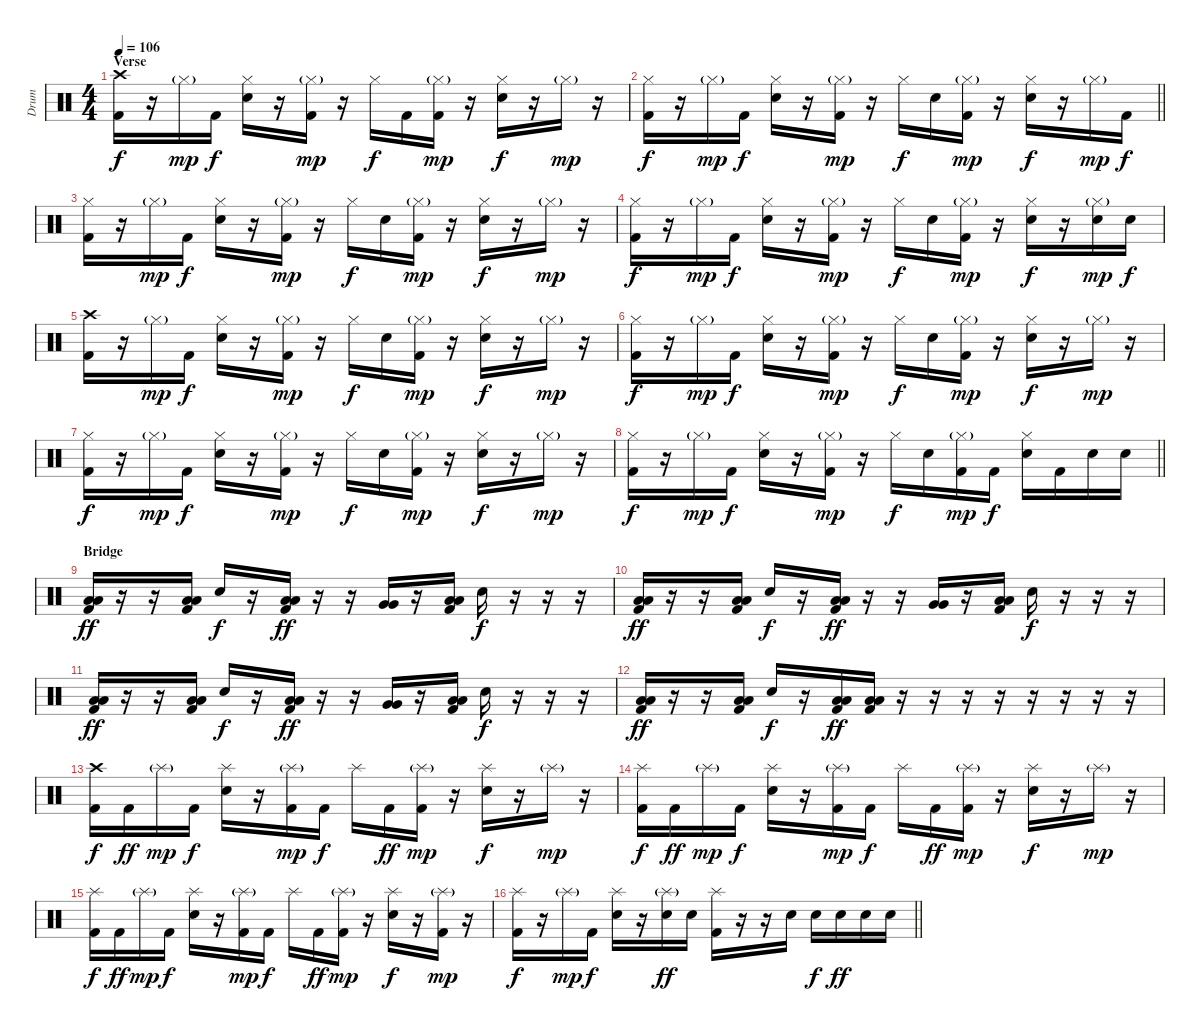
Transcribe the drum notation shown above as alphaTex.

\track ("Drum" "Drum") {instrument percussion}
\staff {score}
\articulation defaults
\ts (4 4)
\section ("" "Verse")
\tempo 106
\clef neutral
\ks c
("Crash high (hit)" "Kick (hit) 2").16{dy f} r.16 "Hi-Hat (closed)"{g}.16{dy mp} "Kick (hit) 2".16{dy f} ("Hi-Hat (closed)" "Electric Snare (hit)").16 r.16 ("Hi-Hat (closed)"{g} "Kick (hit) 2").16{dy mp} r.16 "Hi-Hat (closed)".16{dy f} "Kick (hit) 2".16 ("Hi-Hat (closed)"{g} "Kick (hit) 2").16{dy mp} r.16 ("Hi-Hat (closed)" "Electric Snare (hit)").16{dy f} r.16 "Hi-Hat (closed)"{g}.16{dy mp} r.16 |
\barLineRight lightlight
("Hi-Hat (closed)" "Kick (hit) 2").16{dy f} r.16 "Hi-Hat (closed)"{g}.16{dy mp} "Kick (hit) 2".16{dy f} ("Hi-Hat (closed)" "Electric Snare (hit)").16 r.16 ("Hi-Hat (closed)"{g} "Kick (hit) 2").16{dy mp} r.16 "Hi-Hat (closed)".16{dy f} "Electric Snare (hit)".16 ("Hi-Hat (closed)"{g} "Kick (hit) 2").16{dy mp} r.16 ("Hi-Hat (closed)" "Electric Snare (hit)").16{dy f} r.16 "Hi-Hat (closed)"{g}.16{dy mp} "Kick (hit) 2".16{dy f} |
("Hi-Hat (closed)" "Kick (hit) 2").16 r.16 "Hi-Hat (closed)"{g}.16{dy mp} "Kick (hit) 2".16{dy f} ("Hi-Hat (closed)" "Electric Snare (hit)").16 r.16 ("Hi-Hat (closed)"{g} "Kick (hit) 2").16{dy mp} r.16 "Hi-Hat (closed)".16{dy f} "Electric Snare (hit)".16 ("Hi-Hat (closed)"{g} "Kick (hit) 2").16{dy mp} r.16 ("Hi-Hat (closed)" "Electric Snare (hit)").16{dy f} r.16 "Hi-Hat (closed)"{g}.16{dy mp} r.16 |
("Hi-Hat (closed)" "Kick (hit) 2").16{dy f} r.16 "Hi-Hat (closed)"{g}.16{dy mp} "Kick (hit) 2".16{dy f} ("Hi-Hat (closed)" "Electric Snare (hit)").16 r.16 ("Hi-Hat (closed)"{g} "Kick (hit) 2").16{dy mp} r.16 "Hi-Hat (closed)".16{dy f} "Electric Snare (hit)".16 ("Hi-Hat (closed)"{g} "Kick (hit) 2").16{dy mp} r.16 ("Hi-Hat (closed)" "Electric Snare (hit)").16{dy f} r.16 ("Hi-Hat (closed)"{g} "Electric Snare (hit)").16{dy mp} "Electric Snare (hit)".16{dy f} |
("Crash high (hit)" "Kick (hit) 2").16 r.16 "Hi-Hat (closed)"{g}.16{dy mp} "Kick (hit) 2".16{dy f} ("Hi-Hat (closed)" "Electric Snare (hit)").16 r.16 ("Hi-Hat (closed)"{g} "Kick (hit) 2").16{dy mp} r.16 "Hi-Hat (closed)".16{dy f} "Electric Snare (hit)".16 ("Hi-Hat (closed)"{g} "Kick (hit) 2").16{dy mp} r.16 ("Hi-Hat (closed)" "Electric Snare (hit)").16{dy f} r.16 "Hi-Hat (closed)"{g}.16{dy mp} r.16 |
("Hi-Hat (closed)" "Kick (hit) 2").16{dy f} r.16 "Hi-Hat (closed)"{g}.16{dy mp} "Kick (hit) 2".16{dy f} ("Hi-Hat (closed)" "Electric Snare (hit)").16 r.16 ("Hi-Hat (closed)"{g} "Kick (hit) 2").16{dy mp} r.16 "Hi-Hat (closed)".16{dy f} "Electric Snare (hit)".16 ("Hi-Hat (closed)"{g} "Kick (hit) 2").16{dy mp} r.16 ("Hi-Hat (closed)" "Electric Snare (hit)").16{dy f} r.16 "Hi-Hat (closed)"{g}.16{dy mp} r.16 |
("Hi-Hat (closed)" "Kick (hit) 2").16{dy f} r.16 "Hi-Hat (closed)"{g}.16{dy mp} "Kick (hit) 2".16{dy f} ("Hi-Hat (closed)" "Electric Snare (hit)").16 r.16 ("Hi-Hat (closed)"{g} "Kick (hit) 2").16{dy mp} r.16 "Hi-Hat (closed)".16{dy f} "Electric Snare (hit)".16 ("Hi-Hat (closed)"{g} "Kick (hit) 2").16{dy mp} r.16 ("Hi-Hat (closed)" "Electric Snare (hit)").16{dy f} r.16 "Hi-Hat (closed)"{g}.16{dy mp} r.16 |
\barLineRight lightlight
("Hi-Hat (closed)" "Kick (hit) 2").16{dy f} r.16 "Hi-Hat (closed)"{g}.16{dy mp} "Kick (hit) 2".16{dy f} ("Hi-Hat (closed)" "Electric Snare (hit)").16 r.16 ("Hi-Hat (closed)"{g} "Kick (hit) 2").16{dy mp} r.16 "Hi-Hat (closed)".16{dy f} "Electric Snare (hit)".16 ("Hi-Hat (closed)"{g} "Kick (hit) 2").16{dy mp} "Kick (hit) 2".16{dy f} ("Hi-Hat (closed)" "Electric Snare (hit)").16 "Kick (hit) 2".16 "Electric Snare (hit)".16 "Electric Snare (hit)".16 |
\section ("" "Bridge")
("Low Floor Tom (hit)" "Low Floor Tom (hit)" "Kick (hit) 2").16{dy ff} r.16 r.16 ("Low Floor Tom (hit)" "Low Floor Tom (hit)" "Kick (hit) 2").16 "Electric Snare (hit)".16{dy f} r.16 ("Low Floor Tom (hit)" "Low Floor Tom (hit)" "Kick (hit) 2").16{dy ff} r.16 r.16 ("Very Low Tom (hit)" "Very Low Tom (hit)").16 r.16 ("Low Floor Tom (hit)" "Low Floor Tom (hit)" "Kick (hit) 2").16 "Electric Snare (hit)".16{dy f} r.16 r.16 r.16 |
("Low Floor Tom (hit)" "Low Floor Tom (hit)" "Kick (hit) 2").16{dy ff} r.16 r.16 ("Low Floor Tom (hit)" "Low Floor Tom (hit)" "Kick (hit) 2").16 "Electric Snare (hit)".16{dy f} r.16 ("Low Floor Tom (hit)" "Low Floor Tom (hit)" "Kick (hit) 2").16{dy ff} r.16 r.16 ("Very Low Tom (hit)" "Very Low Tom (hit)").16 r.16 ("Low Floor Tom (hit)" "Low Floor Tom (hit)" "Kick (hit) 2").16 "Electric Snare (hit)".16{dy f} r.16 r.16 r.16 |
("Low Floor Tom (hit)" "Low Floor Tom (hit)" "Kick (hit) 2").16{dy ff} r.16 r.16 ("Low Floor Tom (hit)" "Low Floor Tom (hit)" "Kick (hit) 2").16 "Electric Snare (hit)".16{dy f} r.16 ("Low Floor Tom (hit)" "Low Floor Tom (hit)" "Kick (hit) 2").16{dy ff} r.16 r.16 ("Very Low Tom (hit)" "Very Low Tom (hit)").16 r.16 ("Low Floor Tom (hit)" "Low Floor Tom (hit)" "Kick (hit) 2").16 "Electric Snare (hit)".16{dy f} r.16 r.16 r.16 |
("Low Floor Tom (hit)" "Low Floor Tom (hit)" "Kick (hit) 2").16{dy ff} r.16 r.16 ("Low Floor Tom (hit)" "Low Floor Tom (hit)" "Kick (hit) 2").16 "Electric Snare (hit)".16{dy f} r.16 ("Low Floor Tom (hit)" "Low Floor Tom (hit)" "Kick (hit) 2").16{dy ff} ("Low Floor Tom (hit)" "Low Floor Tom (hit)" "Kick (hit) 2").16 r.16 r.16 r.16 r.16 r.16 r.16 r.16 r.16 |
("Crash high (hit)" "Kick (hit) 2").16{dy f} "Kick (hit) 2".16{dy ff} "Splash (hit)"{g}.16{dy mp} "Kick (hit) 2".16{dy f} ("Splash (hit)" "Electric Snare (hit)").16 r.16 ("Splash (hit)"{g} "Kick (hit) 2").16{dy mp} "Kick (hit) 2".16{dy f} "Splash (hit)".16 "Kick (hit) 2".16{dy ff} ("Splash (hit)"{g} "Kick (hit) 2").16{dy mp} r.16 ("Splash (hit)" "Electric Snare (hit)").16{dy f} r.16 "Splash (hit)"{g}.16{dy mp} r.16 |
("Splash (hit)" "Kick (hit) 2").16{dy f} "Kick (hit) 2".16{dy ff} "Splash (hit)"{g}.16{dy mp} "Kick (hit) 2".16{dy f} ("Splash (hit)" "Electric Snare (hit)").16 r.16 ("Splash (hit)"{g} "Kick (hit) 2").16{dy mp} "Kick (hit) 2".16{dy f} "Splash (hit)".16 "Kick (hit) 2".16{dy ff} ("Splash (hit)"{g} "Kick (hit) 2").16{dy mp} r.16 ("Splash (hit)" "Electric Snare (hit)").16{dy f} r.16 "Splash (hit)"{g}.16{dy mp} r.16 |
("Splash (hit)" "Kick (hit) 2").16{dy f} "Kick (hit) 2".16{dy ff} "Splash (hit)"{g}.16{dy mp} "Kick (hit) 2".16{dy f} ("Splash (hit)" "Electric Snare (hit)").16 r.16 ("Splash (hit)"{g} "Kick (hit) 2").16{dy mp} "Kick (hit) 2".16{dy f} "Splash (hit)".16 "Kick (hit) 2".16{dy ff} ("Splash (hit)"{g} "Kick (hit) 2").16{dy mp} r.16 ("Splash (hit)" "Electric Snare (hit)").16{dy f} r.16 ("Splash (hit)"{g} "Kick (hit) 2").16{dy mp} r.16 |
\barLineRight lightlight
("Splash (hit)" "Kick (hit) 2").16{dy f} r.16 "Splash (hit)"{g}.16{dy mp} "Kick (hit) 2".16{dy f} ("Splash (hit)" "Electric Snare (hit)").16 r.16 ("Splash (hit)"{g} "Electric Snare (hit)").16{dy ff} "Electric Snare (hit)".16 ("Splash (hit)" "Kick (hit) 2").16 r.16 r.16 "Electric Snare (hit)".16 "Electric Snare (hit)".16{dy f} "Electric Snare (hit)".16{dy ff} "Electric Snare (hit)".16 "Electric Snare (hit)".16
